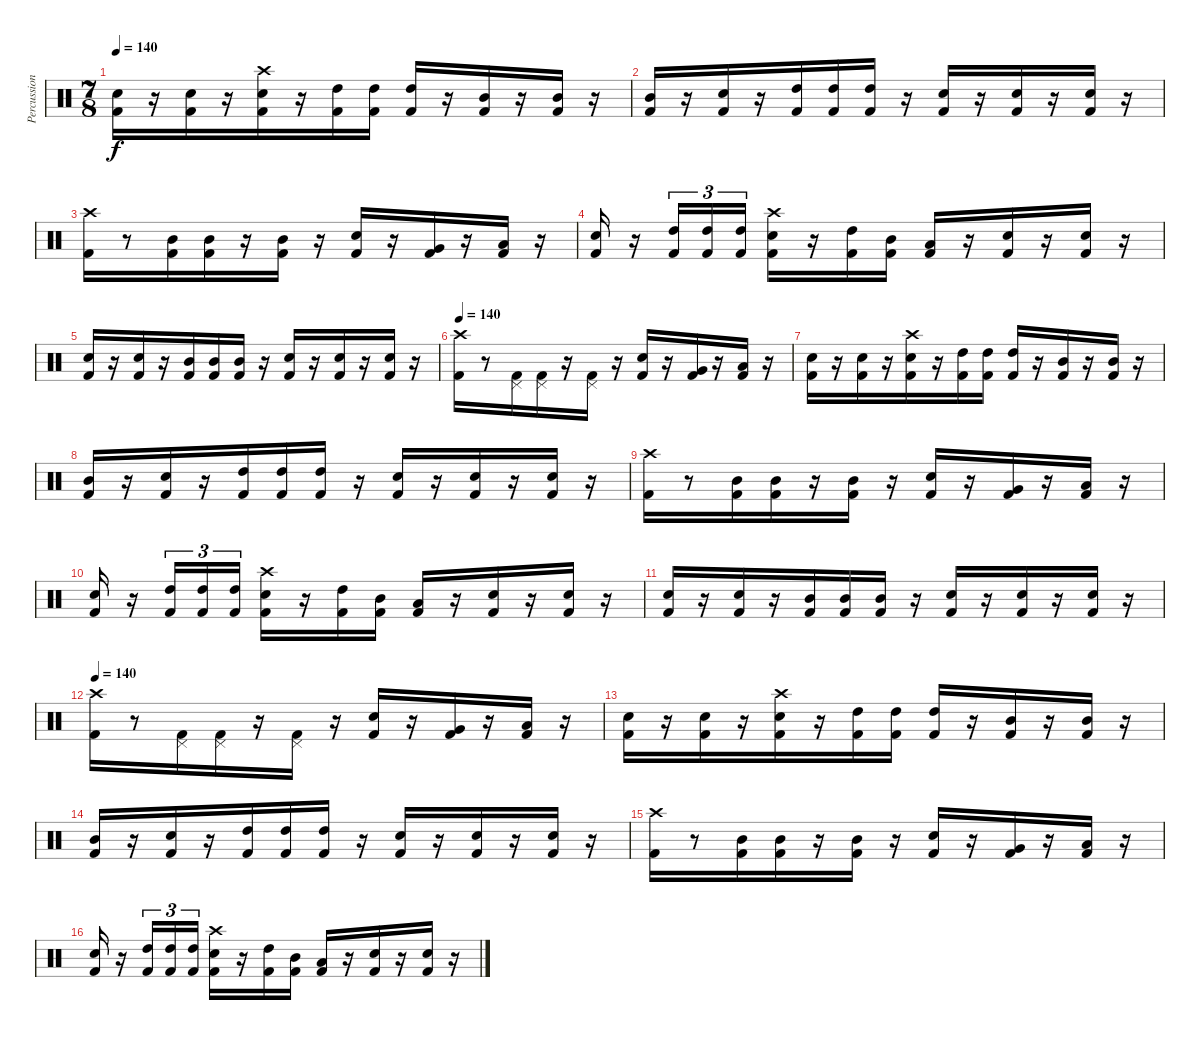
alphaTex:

\track ("Percussion" "Percussion") {instrument percussion}
\staff {score}
\articulation defaults
\ts (7 8)
\tempo 140
\clef neutral
\ks c
("Snare (hit) 2" "Kick (hit) 2").16{dy f} r.16 ("Snare (hit) 2" "Kick (hit) 2").16 r.16 ("Crash high (hit)" "Snare (hit) 2" "Kick (hit) 2").16 r.16 ("High Tom (hit)" "Kick (hit) 2").16 ("High Tom (hit)" "Kick (hit) 2").16 ("High Tom (hit)" "Kick (hit) 2").16 r.16 ("Mid Tom (hit)" "Kick (hit) 2").16 r.16 ("Mid Tom (hit)" "Kick (hit) 2").16 r.16 |
("Mid Tom (hit)" "Kick (hit) 2").16 r.16 ("Snare (hit) 2" "Kick (hit) 2").16 r.16 ("High Tom (hit)" "Kick (hit) 2").16 ("High Tom (hit)" "Kick (hit) 2").16 ("High Tom (hit)" "Kick (hit) 2").16 r.16 ("Snare (hit) 2" "Kick (hit) 2").16 r.16 ("Snare (hit) 2" "Kick (hit) 2").16 r.16 ("Snare (hit) 2" "Kick (hit) 2").16 r.16 |
("Crash high (hit)" "Kick (hit) 2").16 r.8 ("Mid Tom (hit)" "Kick (hit) 2").16 ("Mid Tom (hit)" "Kick (hit) 2").16 r.16 ("Mid Tom (hit)" "Kick (hit) 2").16 r.16 ("Snare (hit) 2" "Kick (hit) 2").16 r.16 ("Very Low Tom (hit)" "Kick (hit) 2").16 r.16 ("Low Tom (hit)" "Kick (hit) 2").16 r.16 |
("Electric Snare (hit)" "Kick (hit) 2").16 r.16 ("High Tom (hit)" "Kick (hit) 2").16{tu (3 2)} ("High Tom (hit)" "Kick (hit) 2").16{tu (3 2)} ("High Tom (hit)" "Kick (hit) 2").16{tu (3 2)} ("Crash high (hit)" "Snare (hit) 2" "Kick (hit) 2").16 r.16 ("High Tom (hit)" "Kick (hit) 2").16 ("Mid Tom (hit)" "Kick (hit) 2").16 ("Low Tom (hit)" "Kick (hit) 2").16 r.16 ("Snare (hit) 2" "Kick (hit) 2").16 r.16 ("Snare (hit) 2" "Kick (hit) 2").16 r.16 |
("Snare (hit) 2" "Kick (hit) 2").16 r.16 ("Snare (hit) 2" "Kick (hit) 2").16 r.16 ("Mid Tom (hit)" "Kick (hit) 2").16 ("Mid Tom (hit)" "Kick (hit) 2").16 ("Mid Tom (hit)" "Kick (hit) 2").16 r.16 ("Snare (hit) 2" "Kick (hit) 2").16 r.16 ("Snare (hit) 2" "Kick (hit) 2").16 r.16 ("Snare (hit) 2" "Kick (hit) 2").16 r.16 |
\tempo 145
\tempo 140
("Crash high (hit)" "Kick (hit) 2").16 r.8 ("Pedal Hi-Hat (hit)" "Kick (hit) 2").16 ("Pedal Hi-Hat (hit)" "Kick (hit) 2").16 r.16 ("Pedal Hi-Hat (hit)" "Kick (hit) 2").16 r.16 ("Snare (hit) 2" "Kick (hit) 2").16 r.16 ("Very Low Tom (hit)" "Kick (hit) 2").16 r.16 ("Low Tom (hit)" "Kick (hit) 2").16 r.16 |
("Snare (hit) 2" "Kick (hit) 2").16 r.16 ("Snare (hit) 2" "Kick (hit) 2").16 r.16 ("Crash high (hit)" "Snare (hit) 2" "Kick (hit) 2").16 r.16 ("High Tom (hit)" "Kick (hit) 2").16 ("High Tom (hit)" "Kick (hit) 2").16 ("High Tom (hit)" "Kick (hit) 2").16 r.16 ("Mid Tom (hit)" "Kick (hit) 2").16 r.16 ("Mid Tom (hit)" "Kick (hit) 2").16 r.16 |
("Mid Tom (hit)" "Kick (hit) 2").16 r.16 ("Snare (hit) 2" "Kick (hit) 2").16 r.16 ("High Tom (hit)" "Kick (hit) 2").16 ("High Tom (hit)" "Kick (hit) 2").16 ("High Tom (hit)" "Kick (hit) 2").16 r.16 ("Snare (hit) 2" "Kick (hit) 2").16 r.16 ("Snare (hit) 2" "Kick (hit) 2").16 r.16 ("Snare (hit) 2" "Kick (hit) 2").16 r.16 |
("Crash high (hit)" "Kick (hit) 2").16 r.8 ("Mid Tom (hit)" "Kick (hit) 2").16 ("Mid Tom (hit)" "Kick (hit) 2").16 r.16 ("Mid Tom (hit)" "Kick (hit) 2").16 r.16 ("Snare (hit) 2" "Kick (hit) 2").16 r.16 ("Very Low Tom (hit)" "Kick (hit) 2").16 r.16 ("Low Tom (hit)" "Kick (hit) 2").16 r.16 |
("Electric Snare (hit)" "Kick (hit) 2").16 r.16 ("High Tom (hit)" "Kick (hit) 2").16{tu (3 2)} ("High Tom (hit)" "Kick (hit) 2").16{tu (3 2)} ("High Tom (hit)" "Kick (hit) 2").16{tu (3 2)} ("Crash high (hit)" "Snare (hit) 2" "Kick (hit) 2").16 r.16 ("High Tom (hit)" "Kick (hit) 2").16 ("Mid Tom (hit)" "Kick (hit) 2").16 ("Low Tom (hit)" "Kick (hit) 2").16 r.16 ("Snare (hit) 2" "Kick (hit) 2").16 r.16 ("Snare (hit) 2" "Kick (hit) 2").16 r.16 |
("Snare (hit) 2" "Kick (hit) 2").16 r.16 ("Snare (hit) 2" "Kick (hit) 2").16 r.16 ("Mid Tom (hit)" "Kick (hit) 2").16 ("Mid Tom (hit)" "Kick (hit) 2").16 ("Mid Tom (hit)" "Kick (hit) 2").16 r.16 ("Snare (hit) 2" "Kick (hit) 2").16 r.16 ("Snare (hit) 2" "Kick (hit) 2").16 r.16 ("Snare (hit) 2" "Kick (hit) 2").16 r.16 |
\tempo 145
\tempo 140
("Crash high (hit)" "Kick (hit) 2").16 r.8 ("Pedal Hi-Hat (hit)" "Kick (hit) 2").16 ("Pedal Hi-Hat (hit)" "Kick (hit) 2").16 r.16 ("Pedal Hi-Hat (hit)" "Kick (hit) 2").16 r.16 ("Snare (hit) 2" "Kick (hit) 2").16 r.16 ("Very Low Tom (hit)" "Kick (hit) 2").16 r.16 ("Low Tom (hit)" "Kick (hit) 2").16 r.16 |
("Snare (hit) 2" "Kick (hit) 2").16 r.16 ("Snare (hit) 2" "Kick (hit) 2").16 r.16 ("Crash high (hit)" "Snare (hit) 2" "Kick (hit) 2").16 r.16 ("High Tom (hit)" "Kick (hit) 2").16 ("High Tom (hit)" "Kick (hit) 2").16 ("High Tom (hit)" "Kick (hit) 2").16 r.16 ("Mid Tom (hit)" "Kick (hit) 2").16 r.16 ("Mid Tom (hit)" "Kick (hit) 2").16 r.16 |
("Mid Tom (hit)" "Kick (hit) 2").16 r.16 ("Snare (hit) 2" "Kick (hit) 2").16 r.16 ("High Tom (hit)" "Kick (hit) 2").16 ("High Tom (hit)" "Kick (hit) 2").16 ("High Tom (hit)" "Kick (hit) 2").16 r.16 ("Snare (hit) 2" "Kick (hit) 2").16 r.16 ("Snare (hit) 2" "Kick (hit) 2").16 r.16 ("Snare (hit) 2" "Kick (hit) 2").16 r.16 |
("Crash high (hit)" "Kick (hit) 2").16 r.8 ("Mid Tom (hit)" "Kick (hit) 2").16 ("Mid Tom (hit)" "Kick (hit) 2").16 r.16 ("Mid Tom (hit)" "Kick (hit) 2").16 r.16 ("Snare (hit) 2" "Kick (hit) 2").16 r.16 ("Very Low Tom (hit)" "Kick (hit) 2").16 r.16 ("Low Tom (hit)" "Kick (hit) 2").16 r.16 |
("Electric Snare (hit)" "Kick (hit) 2").16 r.16 ("High Tom (hit)" "Kick (hit) 2").16{tu (3 2)} ("High Tom (hit)" "Kick (hit) 2").16{tu (3 2)} ("High Tom (hit)" "Kick (hit) 2").16{tu (3 2)} ("Crash high (hit)" "Snare (hit) 2" "Kick (hit) 2").16 r.16 ("High Tom (hit)" "Kick (hit) 2").16 ("Mid Tom (hit)" "Kick (hit) 2").16 ("Low Tom (hit)" "Kick (hit) 2").16 r.16 ("Snare (hit) 2" "Kick (hit) 2").16 r.16 ("Snare (hit) 2" "Kick (hit) 2").16 r.16
